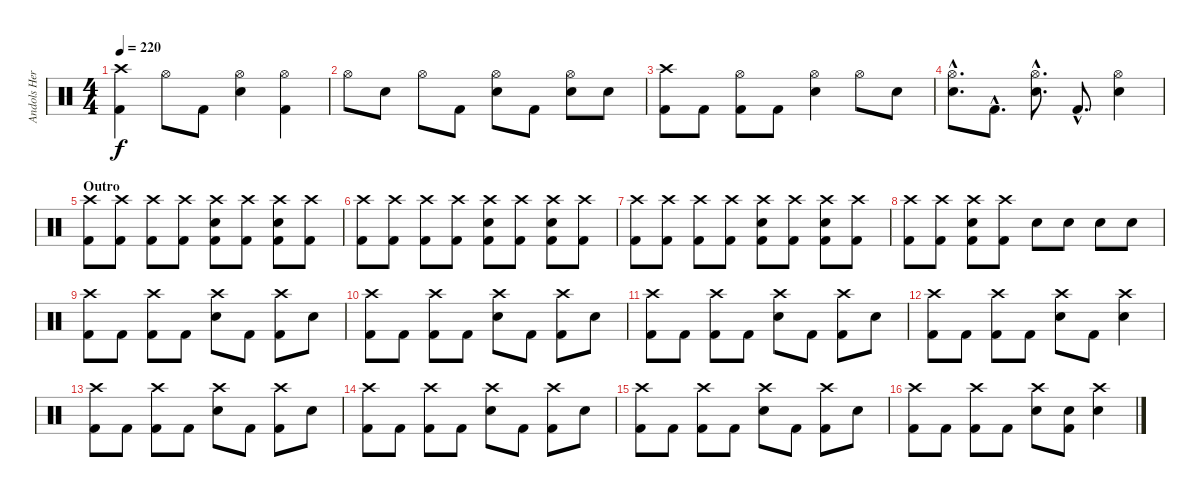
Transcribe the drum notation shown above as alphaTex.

\track ("Andols Herrick - Drums" "Andols Her") {instrument percussion}
\staff {score}
\articulation defaults
\ts (4 4)
\tempo 220
\clef neutral
\ks c
("Crash high (hit)" "Kick (hit) 2").4{dy f} "Hi-Hat (open)".8 "Kick (hit) 2".8 ("Hi-Hat (open)" "Snare (hit) 2").4 ("Hi-Hat (open)" "Kick (hit) 2").4 |
"Hi-Hat (open)".8 "Snare (hit) 2".8 "Hi-Hat (open)".8 "Kick (hit) 2".8 ("Hi-Hat (open)" "Snare (hit) 2").8 "Kick (hit) 2".8 ("Hi-Hat (open)" "Snare (hit) 2").8 "Snare (hit) 2".8 |
("Crash high (hit)" "Kick (hit) 2").8 "Kick (hit) 2".8 ("Hi-Hat (open)" "Kick (hit) 2").8 "Kick (hit) 2".8 ("Hi-Hat (open)" "Snare (hit) 2").4 "Hi-Hat (open)".8 "Snare (hit) 2".8 |
("Hi-Hat (open)"{hac} "Snare (hit) 2"{hac}).8{d} "Kick (hit) 2"{hac}.8{d} ("Hi-Hat (open)"{hac} "Snare (hit) 2"{hac}).8{d} "Kick (hit) 2"{hac}.8{d} ("Hi-Hat (open)" "Snare (hit) 2").4 |
\section ("" "Outro")
("Crash high (hit)" "Kick (hit) 2").8 ("Crash high (hit)" "Kick (hit) 2").8 ("Crash high (hit)" "Kick (hit) 2").8 ("Crash high (hit)" "Kick (hit) 2").8 ("Crash high (hit)" "Snare (hit) 2" "Kick (hit) 2").8 ("Crash high (hit)" "Kick (hit) 2").8 ("Crash high (hit)" "Snare (hit) 2" "Kick (hit) 2").8 ("Crash high (hit)" "Kick (hit) 2").8 |
("Crash high (hit)" "Kick (hit) 2").8 ("Crash high (hit)" "Kick (hit) 2").8 ("Crash high (hit)" "Kick (hit) 2").8 ("Crash high (hit)" "Kick (hit) 2").8 ("Crash high (hit)" "Snare (hit) 2" "Kick (hit) 2").8 ("Crash high (hit)" "Kick (hit) 2").8 ("Crash high (hit)" "Snare (hit) 2" "Kick (hit) 2").8 ("Crash high (hit)" "Kick (hit) 2").8 |
("Crash high (hit)" "Kick (hit) 2").8 ("Crash high (hit)" "Kick (hit) 2").8 ("Crash high (hit)" "Kick (hit) 2").8 ("Crash high (hit)" "Kick (hit) 2").8 ("Crash high (hit)" "Snare (hit) 2" "Kick (hit) 2").8 ("Crash high (hit)" "Kick (hit) 2").8 ("Crash high (hit)" "Snare (hit) 2" "Kick (hit) 2").8 ("Crash high (hit)" "Kick (hit) 2").8 |
("Crash high (hit)" "Kick (hit) 2").8 ("Crash high (hit)" "Kick (hit) 2").8 ("Crash high (hit)" "Snare (hit) 2" "Kick (hit) 2").8 ("Crash high (hit)" "Kick (hit) 2").8 "Snare (hit) 2".8 "Snare (hit) 2".8 "Snare (hit) 2".8 "Snare (hit) 2".8 |
("Crash high (hit)" "Kick (hit) 2").8 "Kick (hit) 2".8 ("Crash high (hit)" "Kick (hit) 2").8 "Kick (hit) 2".8 ("Crash high (hit)" "Snare (hit) 2").8 "Kick (hit) 2".8 ("Crash high (hit)" "Kick (hit) 2").8 "Snare (hit) 2".8 |
("Crash high (hit)" "Kick (hit) 2").8 "Kick (hit) 2".8 ("Crash high (hit)" "Kick (hit) 2").8 "Kick (hit) 2".8 ("Crash high (hit)" "Snare (hit) 2").8 "Kick (hit) 2".8 ("Crash high (hit)" "Kick (hit) 2").8 "Snare (hit) 2".8 |
("Crash high (hit)" "Kick (hit) 2").8 "Kick (hit) 2".8 ("Crash high (hit)" "Kick (hit) 2").8 "Kick (hit) 2".8 ("Crash high (hit)" "Snare (hit) 2").8 "Kick (hit) 2".8 ("Crash high (hit)" "Kick (hit) 2").8 "Snare (hit) 2".8 |
("Crash high (hit)" "Kick (hit) 2").8 "Kick (hit) 2".8 ("Crash high (hit)" "Kick (hit) 2").8 "Kick (hit) 2".8 ("Crash high (hit)" "Snare (hit) 2").8 "Kick (hit) 2".8 ("Crash high (hit)" "Snare (hit) 2").4 |
("Crash high (hit)" "Kick (hit) 2").8 "Kick (hit) 2".8 ("Crash high (hit)" "Kick (hit) 2").8 "Kick (hit) 2".8 ("Crash high (hit)" "Snare (hit) 2").8 "Kick (hit) 2".8 ("Crash high (hit)" "Kick (hit) 2").8 "Snare (hit) 2".8 |
("Crash high (hit)" "Kick (hit) 2").8 "Kick (hit) 2".8 ("Crash high (hit)" "Kick (hit) 2").8 "Kick (hit) 2".8 ("Crash high (hit)" "Snare (hit) 2").8 "Kick (hit) 2".8 ("Crash high (hit)" "Kick (hit) 2").8 "Snare (hit) 2".8 |
("Crash high (hit)" "Kick (hit) 2").8 "Kick (hit) 2".8 ("Crash high (hit)" "Kick (hit) 2").8 "Kick (hit) 2".8 ("Crash high (hit)" "Snare (hit) 2").8 "Kick (hit) 2".8 ("Crash high (hit)" "Kick (hit) 2").8 "Snare (hit) 2".8 |
("Crash high (hit)" "Kick (hit) 2").8 "Kick (hit) 2".8 ("Crash high (hit)" "Kick (hit) 2").8 "Kick (hit) 2".8 ("Crash high (hit)" "Snare (hit) 2").8 ("Snare (hit) 2" "Kick (hit) 2").8 ("Crash high (hit)" "Snare (hit) 2").4
